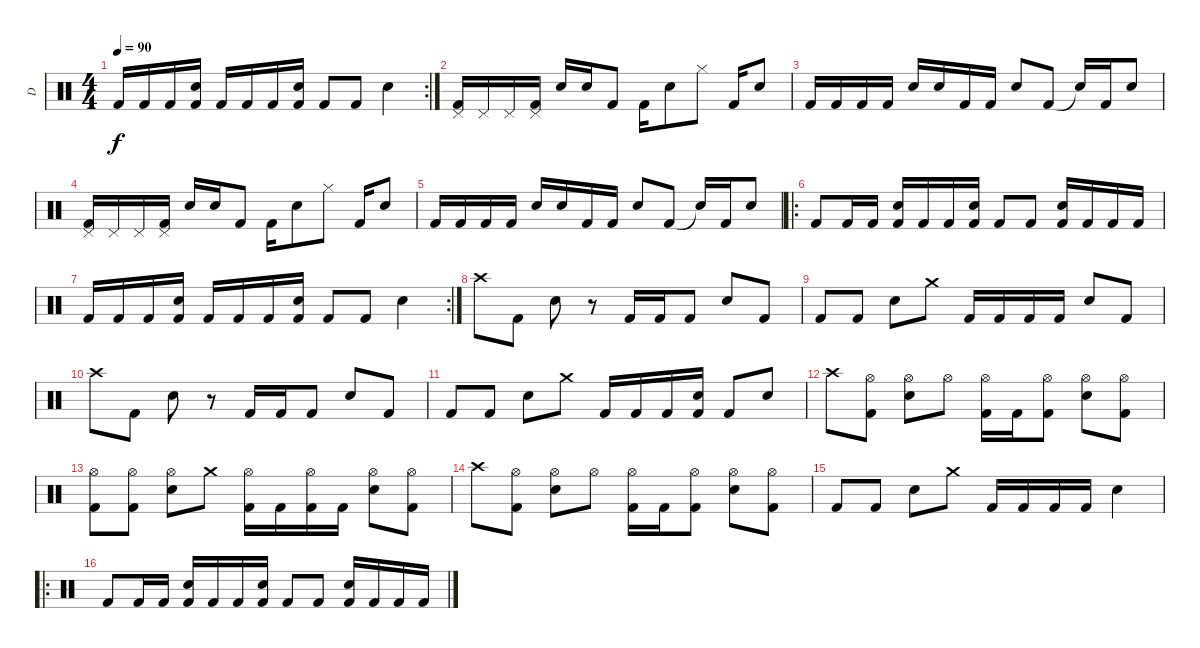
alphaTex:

\track ("D" "D") {instrument percussion}
\staff {score}
\articulation defaults
\rc 2
\ts (4 4)
\tempo 90
\clef neutral
\ks c "Kick (hit) 2".16{dy f} "Kick (hit) 2".16 "Kick (hit) 2".16
("Electric Snare (hit)" "Kick (hit) 2").16 "Kick (hit) 2".16 "Kick (hit) 2".16 "Kick (hit) 2".16 ("Electric Snare (hit)" "Kick (hit) 2").16 "Kick (hit) 2".8 "Kick (hit) 2".8 "Electric Snare (hit)".4 |
("Pedal Hi-Hat (hit)" "Kick (hit) 2").16 "Pedal Hi-Hat (hit)".16 "Pedal Hi-Hat (hit)".16 ("Pedal Hi-Hat (hit)" "Kick (hit) 2").16 "Electric Snare (hit)".16 "Electric Snare (hit)".16 "Kick (hit) 2".8 "Kick (hit) 2".16 "Electric Snare (hit)".8 "Hi-Hat (closed)".8 "Kick (hit) 2".16 "Electric Snare (hit)".8 |
"Kick (hit) 2".16 "Kick (hit) 2".16 "Kick (hit) 2".16 "Kick (hit) 2".16 "Electric Snare (hit)".16 "Electric Snare (hit)".16 "Kick (hit) 2".16 "Kick (hit) 2".16 "Electric Snare (hit)".8 "Kick (hit) 2".8 "Snare (hit)"{t}.16 "Kick (hit) 2".16 "Electric Snare (hit)".8 |
("Pedal Hi-Hat (hit)" "Kick (hit) 2").16 "Pedal Hi-Hat (hit)".16 "Pedal Hi-Hat (hit)".16 ("Pedal Hi-Hat (hit)" "Kick (hit) 2").16 "Electric Snare (hit)".16 "Electric Snare (hit)".16 "Kick (hit) 2".8 "Kick (hit) 2".16 "Electric Snare (hit)".8 "Hi-Hat (closed)".8 "Kick (hit) 2".16 "Electric Snare (hit)".8 |
"Kick (hit) 2".16 "Kick (hit) 2".16 "Kick (hit) 2".16 "Kick (hit) 2".16 "Electric Snare (hit)".16 "Electric Snare (hit)".16 "Kick (hit) 2".16 "Kick (hit) 2".16 "Electric Snare (hit)".8 "Kick (hit) 2".8 "Snare (hit)"{t}.16 "Kick (hit) 2".16 "Electric Snare (hit)".8 |
\ro "Kick (hit) 2".8 "Kick (hit) 2".16 "Kick (hit) 2".16
("Electric Snare (hit)" "Kick (hit) 2").16 "Kick (hit) 2".16 "Kick (hit) 2".16 ("Electric Snare (hit)" "Kick (hit) 2").16 "Kick (hit) 2".8 "Kick (hit) 2".8 ("Electric Snare (hit)" "Kick (hit) 2").16 "Kick (hit) 2".16 "Kick (hit) 2".16 "Kick (hit) 2".16 |
\rc 2 "Kick (hit) 2".16 "Kick (hit) 2".16 "Kick (hit) 2".16
("Electric Snare (hit)" "Kick (hit) 2").16 "Kick (hit) 2".16 "Kick (hit) 2".16 "Kick (hit) 2".16 ("Electric Snare (hit)" "Kick (hit) 2").16 "Kick (hit) 2".8 "Kick (hit) 2".8 "Electric Snare (hit)".4 |
"Crash high (hit)".8 "Kick (hit) 2".8 "Electric Snare (hit)".8 r.8 "Kick (hit) 2".16 "Kick (hit) 2".16 "Kick (hit) 2".8 "Electric Snare (hit)".8 "Kick (hit) 2".8 |
"Kick (hit) 2".8 "Kick (hit) 2".8 "Electric Snare (hit)".8 "Crash medium (hit)".8 "Kick (hit) 2".16 "Kick (hit) 2".16 "Kick (hit) 2".16 "Kick (hit) 2".16 "Electric Snare (hit)".8 "Kick (hit) 2".8 |
"Crash high (hit)".8 "Kick (hit) 2".8 "Electric Snare (hit)".8 r.8 "Kick (hit) 2".16 "Kick (hit) 2".16 "Kick (hit) 2".8 "Electric Snare (hit)".8 "Kick (hit) 2".8 |
"Kick (hit) 2".8 "Kick (hit) 2".8 "Electric Snare (hit)".8 "Crash medium (hit)".8 "Kick (hit) 2".16 "Kick (hit) 2".16 "Kick (hit) 2".16 ("Electric Snare (hit)" "Kick (hit) 2").16 "Kick (hit) 2".8 "Electric Snare (hit)".8 |
"Crash high (hit)".8 ("Hi-Hat (open)" "Kick (hit) 2").8 ("Hi-Hat (open)" "Electric Snare (hit)").8 "Hi-Hat (open)".8 ("Hi-Hat (open)" "Kick (hit) 2").16 "Kick (hit) 2".16 ("Hi-Hat (open)" "Kick (hit) 2").8 ("Hi-Hat (open)" "Electric Snare (hit)").8 ("Hi-Hat (open)" "Kick (hit) 2").8 |
("Hi-Hat (open)" "Kick (hit) 2").8 ("Hi-Hat (open)" "Kick (hit) 2").8 ("Hi-Hat (open)" "Electric Snare (hit)").8 "Crash medium (hit)".8 ("Hi-Hat (open)" "Kick (hit) 2").16 "Kick (hit) 2".16 ("Hi-Hat (open)" "Kick (hit) 2").16 "Kick (hit) 2".16 ("Hi-Hat (open)" "Electric Snare (hit)").8 ("Hi-Hat (open)" "Kick (hit) 2").8 |
"Crash high (hit)".8 ("Hi-Hat (open)" "Kick (hit) 2").8 ("Hi-Hat (open)" "Electric Snare (hit)").8 "Hi-Hat (open)".8 ("Hi-Hat (open)" "Kick (hit) 2").16 "Kick (hit) 2".16 ("Hi-Hat (open)" "Kick (hit) 2").8 ("Hi-Hat (open)" "Electric Snare (hit)").8 ("Hi-Hat (open)" "Kick (hit) 2").8 |
"Kick (hit) 2".8 "Kick (hit) 2".8 "Electric Snare (hit)".8 "Crash medium (hit)".8 "Kick (hit) 2".16 "Kick (hit) 2".16 "Kick (hit) 2".16 "Kick (hit) 2".16 "Electric Snare (hit)".4 |
\ro "Kick (hit) 2".8 "Kick (hit) 2".16 "Kick (hit) 2".16
("Electric Snare (hit)" "Kick (hit) 2").16 "Kick (hit) 2".16 "Kick (hit) 2".16 ("Electric Snare (hit)" "Kick (hit) 2").16 "Kick (hit) 2".8 "Kick (hit) 2".8 ("Electric Snare (hit)" "Kick (hit) 2").16 "Kick (hit) 2".16 "Kick (hit) 2".16 "Kick (hit) 2".16
